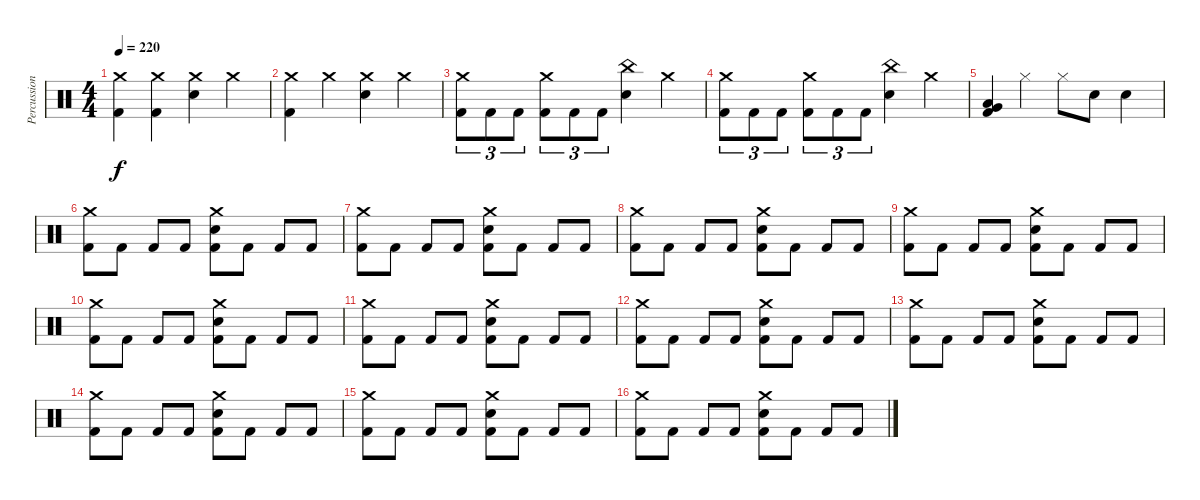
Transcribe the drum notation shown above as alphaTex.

\track ("Percussion" "Percussion") {instrument percussion}
\staff {score}
\articulation defaults
\ts (4 4)
\tempo 220
\clef neutral
\ks c
("Crash medium (hit)" "Kick (hit) 2").4{dy f} ("Crash medium (hit)" "Kick (hit) 2").4 ("Crash medium (hit)" "Snare (hit) 2").4 "Crash medium (hit)".4 |
("Crash medium (hit)" "Kick (hit) 2").4 "Crash medium (hit)".4 ("Crash medium (hit)" "Snare (hit) 2").4 "Crash medium (hit)".4 |
("Crash medium (hit)" "Kick (hit) 2").8{tu (3 2)} "Kick (hit) 2".8{tu (3 2)} "Kick (hit) 2".8{tu (3 2)} ("Crash medium (hit)" "Kick (hit) 2").8{tu (3 2)} "Kick (hit) 2".8{tu (3 2)} "Kick (hit) 2".8{tu (3 2)} ("China (hit)" "Snare (hit) 2").4 "Crash medium (hit)".4 |
("Crash medium (hit)" "Kick (hit) 2").8{tu (3 2)} "Kick (hit) 2".8{tu (3 2)} "Kick (hit) 2".8{tu (3 2)} ("Crash medium (hit)" "Kick (hit) 2").8{tu (3 2)} "Kick (hit) 2".8{tu (3 2)} "Kick (hit) 2".8{tu (3 2)} ("China (hit)" "Snare (hit) 2").4 "Crash medium (hit)".4 |
("Low Tom (hit)" "Very Low Tom (hit)" "Kick (hit) 2").4 "Hi-Hat (closed)".4 "Hi-Hat (closed)".8 "Snare (hit) 2".8 "Snare (hit) 2".4 |
("Crash medium (hit)" "Kick (hit) 2").8 "Kick (hit) 2".8 "Kick (hit) 2".8 "Kick (hit) 2".8 ("Crash medium (hit)" "Snare (hit) 2" "Kick (hit) 2").8 "Kick (hit) 2".8 "Kick (hit) 2".8 "Kick (hit) 2".8 |
("Crash medium (hit)" "Kick (hit) 2").8 "Kick (hit) 2".8 "Kick (hit) 2".8 "Kick (hit) 2".8 ("Crash medium (hit)" "Snare (hit) 2" "Kick (hit) 2").8 "Kick (hit) 2".8 "Kick (hit) 2".8 "Kick (hit) 2".8 |
("Crash medium (hit)" "Kick (hit) 2").8 "Kick (hit) 2".8 "Kick (hit) 2".8 "Kick (hit) 2".8 ("Crash medium (hit)" "Snare (hit) 2" "Kick (hit) 2").8 "Kick (hit) 2".8 "Kick (hit) 2".8 "Kick (hit) 2".8 |
("Crash medium (hit)" "Kick (hit) 2").8 "Kick (hit) 2".8 "Kick (hit) 2".8 "Kick (hit) 2".8 ("Crash medium (hit)" "Snare (hit) 2" "Kick (hit) 2").8 "Kick (hit) 2".8 "Kick (hit) 2".8 "Kick (hit) 2".8 |
("Crash medium (hit)" "Kick (hit) 2").8 "Kick (hit) 2".8 "Kick (hit) 2".8 "Kick (hit) 2".8 ("Crash medium (hit)" "Snare (hit) 2" "Kick (hit) 2").8 "Kick (hit) 2".8 "Kick (hit) 2".8 "Kick (hit) 2".8 |
("Crash medium (hit)" "Kick (hit) 2").8 "Kick (hit) 2".8 "Kick (hit) 2".8 "Kick (hit) 2".8 ("Crash medium (hit)" "Snare (hit) 2" "Kick (hit) 2").8 "Kick (hit) 2".8 "Kick (hit) 2".8 "Kick (hit) 2".8 |
("Crash medium (hit)" "Kick (hit) 2").8 "Kick (hit) 2".8 "Kick (hit) 2".8 "Kick (hit) 2".8 ("Crash medium (hit)" "Snare (hit) 2" "Kick (hit) 2").8 "Kick (hit) 2".8 "Kick (hit) 2".8 "Kick (hit) 2".8 |
("Crash medium (hit)" "Kick (hit) 2").8 "Kick (hit) 2".8 "Kick (hit) 2".8 "Kick (hit) 2".8 ("Crash medium (hit)" "Snare (hit) 2" "Kick (hit) 2").8 "Kick (hit) 2".8 "Kick (hit) 2".8 "Kick (hit) 2".8 |
("Crash medium (hit)" "Kick (hit) 2").8 "Kick (hit) 2".8 "Kick (hit) 2".8 "Kick (hit) 2".8 ("Crash medium (hit)" "Snare (hit) 2" "Kick (hit) 2").8 "Kick (hit) 2".8 "Kick (hit) 2".8 "Kick (hit) 2".8 |
("Crash medium (hit)" "Kick (hit) 2").8 "Kick (hit) 2".8 "Kick (hit) 2".8 "Kick (hit) 2".8 ("Crash medium (hit)" "Snare (hit) 2" "Kick (hit) 2").8 "Kick (hit) 2".8 "Kick (hit) 2".8 "Kick (hit) 2".8 |
("Crash medium (hit)" "Kick (hit) 2").8 "Kick (hit) 2".8 "Kick (hit) 2".8 "Kick (hit) 2".8 ("Crash medium (hit)" "Snare (hit) 2" "Kick (hit) 2").8 "Kick (hit) 2".8 "Kick (hit) 2".8 "Kick (hit) 2".8
